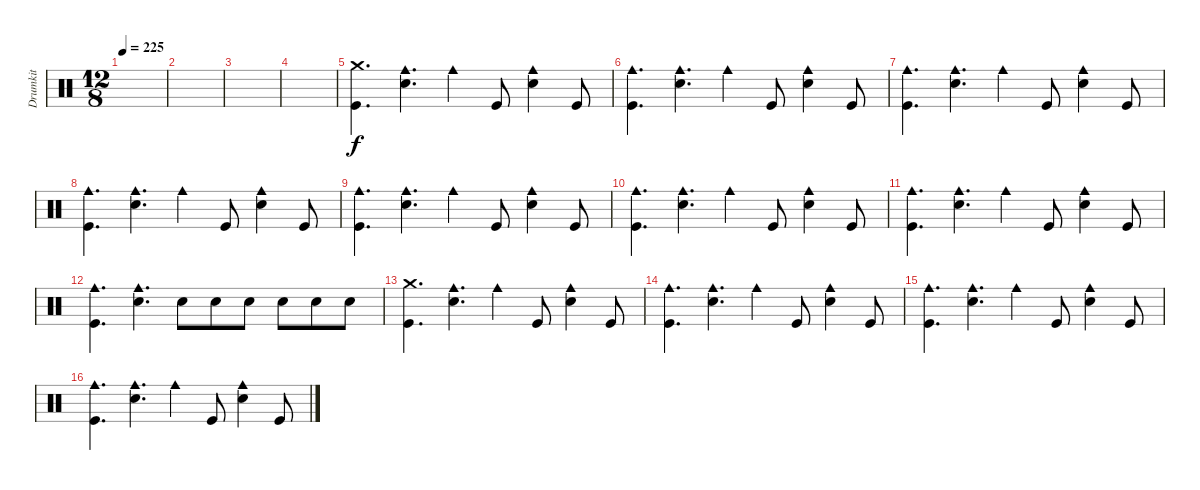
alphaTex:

\track ("Drumkit" "Drumkit") {instrument percussion}
\staff {score}
\articulation defaults
\ts (12 8)
\tempo 225
\clef neutral
\ks c
|
|
|
|
("Kick (hit)" "Crash medium (hit)").4{d} ("Snare (hit) 2" "Cowbell medium (hit)").4{d} "Cowbell medium (hit)".4 "Kick (hit)".8 ("Cowbell medium (hit)" "Snare (hit) 2").4 "Kick (hit)".8 |
("Cowbell medium (hit)" "Kick (hit)").4{d} ("Cowbell medium (hit)" "Snare (hit) 2").4{d} "Cowbell medium (hit)".4 "Kick (hit)".8 ("Cowbell medium (hit)" "Snare (hit) 2").4 "Kick (hit)".8 |
("Kick (hit)" "Cowbell medium (hit)").4{d} ("Snare (hit) 2" "Cowbell medium (hit)").4{d} "Cowbell medium (hit)".4 "Kick (hit)".8 ("Cowbell medium (hit)" "Snare (hit) 2").4 "Kick (hit)".8 |
("Cowbell medium (hit)" "Kick (hit)").4{d} ("Cowbell medium (hit)" "Snare (hit) 2").4{d} "Cowbell medium (hit)".4 "Kick (hit)".8 ("Cowbell medium (hit)" "Snare (hit) 2").4 "Kick (hit)".8 |
("Kick (hit)" "Cowbell medium (hit)").4{d} ("Snare (hit) 2" "Cowbell medium (hit)").4{d} "Cowbell medium (hit)".4 "Kick (hit)".8 ("Cowbell medium (hit)" "Snare (hit) 2").4 "Kick (hit)".8 |
("Cowbell medium (hit)" "Kick (hit)").4{d} ("Cowbell medium (hit)" "Snare (hit) 2").4{d} "Cowbell medium (hit)".4 "Kick (hit)".8 ("Cowbell medium (hit)" "Snare (hit) 2").4 "Kick (hit)".8 |
("Kick (hit)" "Cowbell medium (hit)").4{d} ("Snare (hit) 2" "Cowbell medium (hit)").4{d} "Cowbell medium (hit)".4 "Kick (hit)".8 ("Cowbell medium (hit)" "Snare (hit) 2").4 "Kick (hit)".8 |
("Cowbell medium (hit)" "Kick (hit)").4{d} ("Cowbell medium (hit)" "Snare (hit) 2").4{d} "Snare (hit) 2".8 "Snare (hit) 2".8 "Snare (hit) 2".8 "Snare (hit) 2".8 "Snare (hit) 2".8 "Snare (hit) 2".8 |
("Kick (hit)" "Crash medium (hit)").4{d} ("Snare (hit) 2" "Cowbell medium (hit)").4{d} "Cowbell medium (hit)".4 "Kick (hit)".8 ("Cowbell medium (hit)" "Snare (hit) 2").4 "Kick (hit)".8 |
("Cowbell medium (hit)" "Kick (hit)").4{d} ("Cowbell medium (hit)" "Snare (hit) 2").4{d} "Cowbell medium (hit)".4 "Kick (hit)".8 ("Cowbell medium (hit)" "Snare (hit) 2").4 "Kick (hit)".8 |
("Kick (hit)" "Cowbell medium (hit)").4{d} ("Snare (hit) 2" "Cowbell medium (hit)").4{d} "Cowbell medium (hit)".4 "Kick (hit)".8 ("Cowbell medium (hit)" "Snare (hit) 2").4 "Kick (hit)".8 |
("Cowbell medium (hit)" "Kick (hit)").4{d} ("Cowbell medium (hit)" "Snare (hit) 2").4{d} "Cowbell medium (hit)".4 "Kick (hit)".8 ("Cowbell medium (hit)" "Snare (hit) 2").4 "Kick (hit)".8
